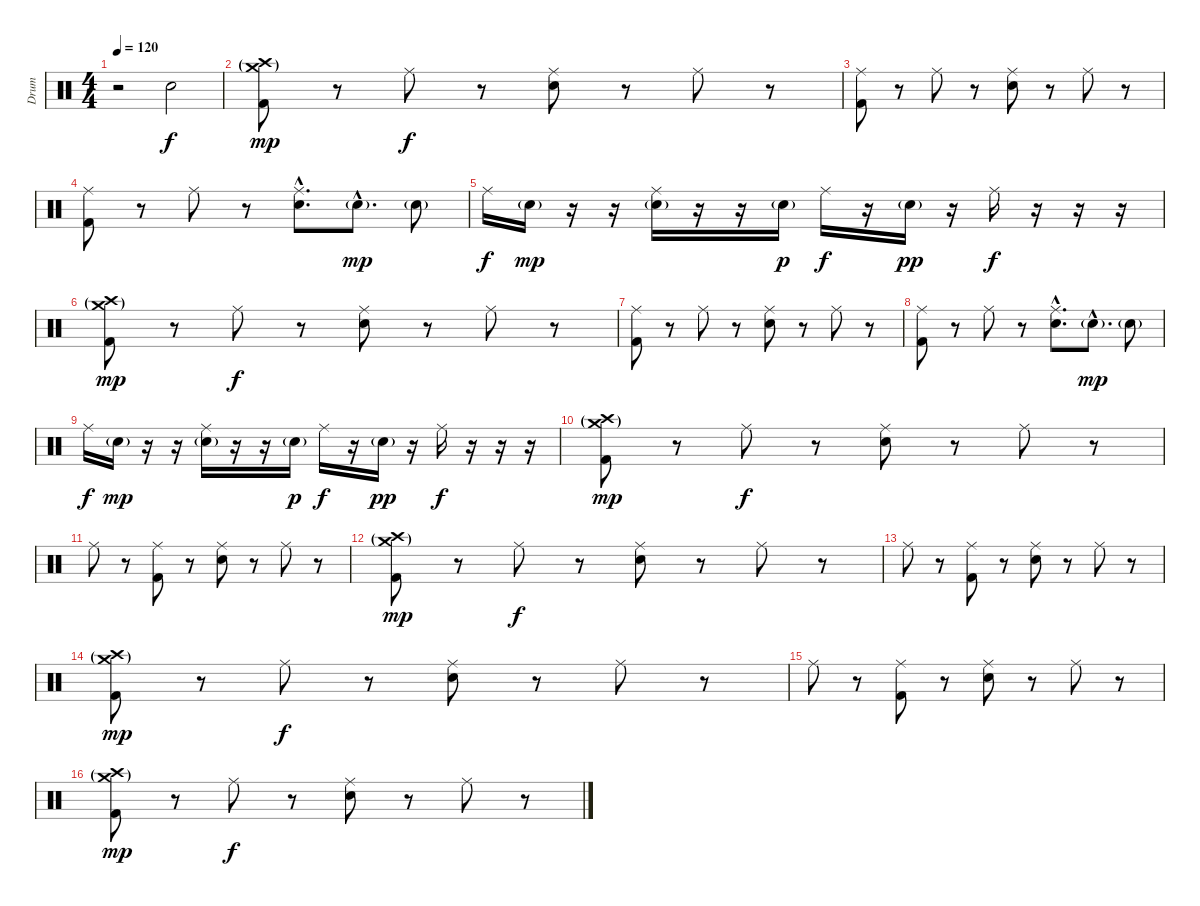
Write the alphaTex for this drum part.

\track ("Drum" "Drum") {instrument percussion}
\staff {score}
\articulation defaults
\ts (4 4)
\tempo 120
\clef neutral
\ks c
r.2{dy f} "Electric Snare (hit)".2 |
("Crash high (hit)"{g} "Crash medium (hit)"{g} "Kick (hit) 2").8{dy mp} r.8 "Ride (middle)".8{dy f} r.8 ("Ride (middle)" "Electric Snare (hit)").8 r.8 "Ride (middle)".8 r.8 |
("Ride (middle)" "Kick (hit) 2").8 r.8 "Ride (middle)".8 r.8 ("Ride (middle)" "Electric Snare (hit)").8 r.8 "Ride (middle)".8 r.8 |
("Ride (middle)" "Kick (hit) 2").8 r.8 "Ride (middle)".8 r.8 ("Ride (middle)"{hac} "Electric Snare (hit)"{hac}).8{d} "Electric Snare (hit)"{g hac}.8{d dy mp} "Electric Snare (hit)"{g}.8 |
"Ride (middle)".16{dy f} "Electric Snare (hit)"{g}.16{dy mp} r.16 r.16 ("Ride (middle)" "Electric Snare (hit)"{g}).16 r.16 r.16 "Electric Snare (hit)"{g}.16{dy p} "Ride (middle)".16{dy f} r.16 "Electric Snare (hit)"{g}.16{dy pp} r.16 "Ride (middle)".16{dy f} r.16 r.16 r.16 |
("Crash high (hit)"{g} "Crash medium (hit)"{g} "Kick (hit) 2").8{dy mp} r.8 "Ride (middle)".8{dy f} r.8 ("Ride (middle)" "Electric Snare (hit)").8 r.8 "Ride (middle)".8 r.8 |
("Ride (middle)" "Kick (hit) 2").8 r.8 "Ride (middle)".8 r.8 ("Ride (middle)" "Electric Snare (hit)").8 r.8 "Ride (middle)".8 r.8 |
("Ride (middle)" "Kick (hit) 2").8 r.8 "Ride (middle)".8 r.8 ("Ride (middle)"{hac} "Electric Snare (hit)"{hac}).8{d} "Electric Snare (hit)"{g hac}.8{d dy mp} "Electric Snare (hit)"{g}.8 |
"Ride (middle)".16{dy f} "Electric Snare (hit)"{g}.16{dy mp} r.16 r.16 ("Ride (middle)" "Electric Snare (hit)"{g}).16 r.16 r.16 "Electric Snare (hit)"{g}.16{dy p} "Ride (middle)".16{dy f} r.16 "Electric Snare (hit)"{g}.16{dy pp} r.16 "Ride (middle)".16{dy f} r.16 r.16 r.16 |
("Crash high (hit)"{g} "Crash medium (hit)"{g} "Kick (hit) 2").8{dy mp} r.8 "Ride (middle)".8{dy f} r.8 ("Ride (middle)" "Electric Snare (hit)").8 r.8 "Ride (middle)".8 r.8 |
"Ride (middle)".8 r.8 ("Ride (middle)" "Kick (hit) 2").8 r.8 ("Ride (middle)" "Electric Snare (hit)").8 r.8 "Ride (middle)".8 r.8 |
("Crash high (hit)"{g} "Crash medium (hit)"{g} "Kick (hit) 2").8{dy mp} r.8 "Ride (middle)".8{dy f} r.8 ("Ride (middle)" "Electric Snare (hit)").8 r.8 "Ride (middle)".8 r.8 |
"Ride (middle)".8 r.8 ("Ride (middle)" "Kick (hit) 2").8 r.8 ("Ride (middle)" "Electric Snare (hit)").8 r.8 "Ride (middle)".8 r.8 |
("Crash high (hit)"{g} "Crash medium (hit)"{g} "Kick (hit) 2").8{dy mp} r.8 "Ride (middle)".8{dy f} r.8 ("Ride (middle)" "Electric Snare (hit)").8 r.8 "Ride (middle)".8 r.8 |
"Ride (middle)".8 r.8 ("Ride (middle)" "Kick (hit) 2").8 r.8 ("Ride (middle)" "Electric Snare (hit)").8 r.8 "Ride (middle)".8 r.8 |
("Crash high (hit)"{g} "Crash medium (hit)"{g} "Kick (hit) 2").8{dy mp} r.8 "Ride (middle)".8{dy f} r.8 ("Ride (middle)" "Electric Snare (hit)").8 r.8 "Ride (middle)".8 r.8
